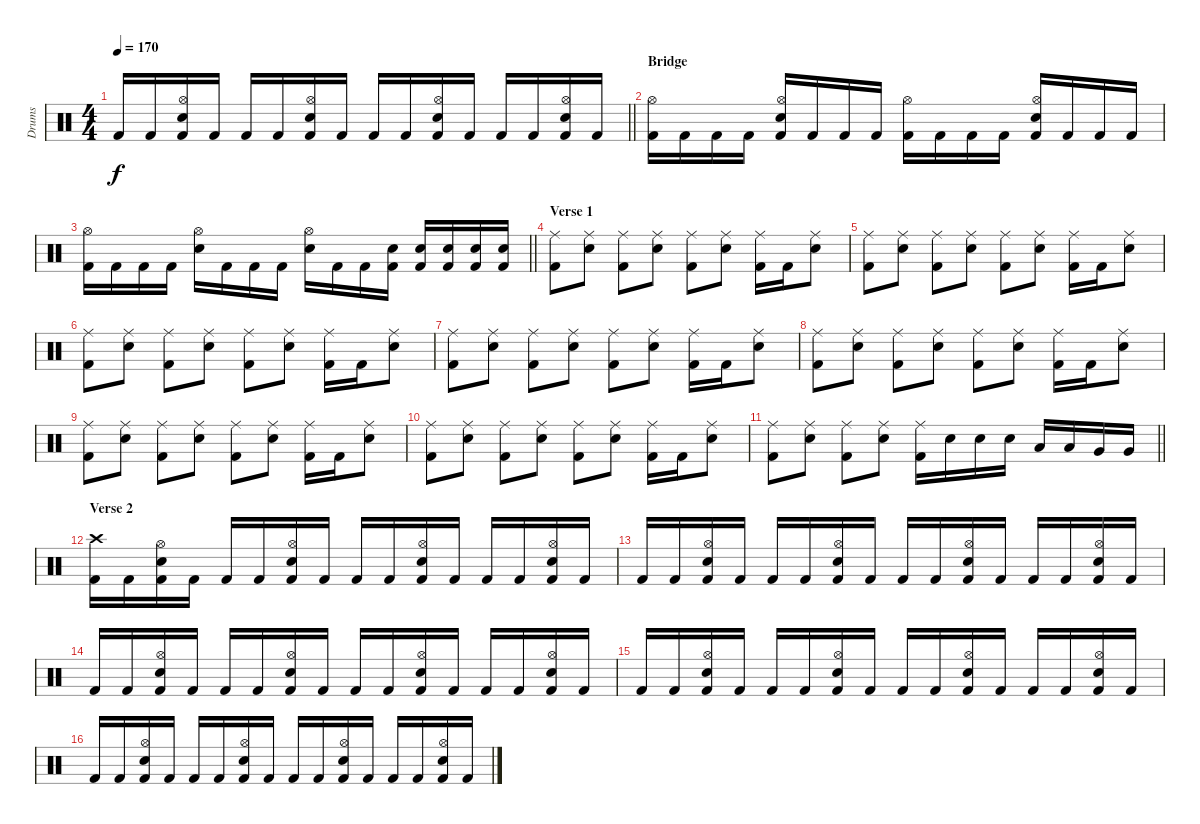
\track ("Drums" "Drums") {instrument percussion}
\staff {score}
\articulation defaults
\ts (4 4)
\tempo 170
\clef neutral
\barLineRight lightlight
\ks c "Kick (hit) 2".16{dy f} "Kick (hit) 2".16
("Hi-Hat (open)" "Electric Snare (hit)" "Kick (hit) 2").16 "Kick (hit) 2".16 "Kick (hit) 2".16 "Kick (hit) 2".16 ("Hi-Hat (open)" "Electric Snare (hit)" "Kick (hit) 2").16 "Kick (hit) 2".16 "Kick (hit) 2".16 "Kick (hit) 2".16 ("Hi-Hat (open)" "Electric Snare (hit)" "Kick (hit) 2").16 "Kick (hit) 2".16 "Kick (hit) 2".16 "Kick (hit) 2".16 ("Hi-Hat (open)" "Electric Snare (hit)" "Kick (hit) 2").16 "Kick (hit) 2".16 |
\section ("" "Bridge")
("Hi-Hat (open)" "Kick (hit) 2").16 "Kick (hit) 2".16 "Kick (hit) 2".16 "Kick (hit) 2".16 ("Hi-Hat (open)" "Electric Snare (hit)" "Kick (hit) 2").16 "Kick (hit) 2".16 "Kick (hit) 2".16 "Kick (hit) 2".16 ("Hi-Hat (open)" "Kick (hit) 2").16 "Kick (hit) 2".16 "Kick (hit) 2".16 "Kick (hit) 2".16 ("Hi-Hat (open)" "Electric Snare (hit)" "Kick (hit) 2").16 "Kick (hit) 2".16 "Kick (hit) 2".16 "Kick (hit) 2".16 |
\barLineRight lightlight
("Hi-Hat (open)" "Kick (hit) 2").16 "Kick (hit) 2".16 "Kick (hit) 2".16 "Kick (hit) 2".16 ("Hi-Hat (open)" "Electric Snare (hit)").16 "Kick (hit) 2".16 "Kick (hit) 2".16 "Kick (hit) 2".16 ("Hi-Hat (open)" "Electric Snare (hit)").16 "Kick (hit) 2".16 "Kick (hit) 2".16 ("Electric Snare (hit)" "Kick (hit) 2").16 ("Electric Snare (hit)" "Kick (hit) 2").16 ("Electric Snare (hit)" "Kick (hit) 2").16 ("Electric Snare (hit)" "Kick (hit) 2").16 ("Electric Snare (hit)" "Kick (hit) 2").16 |
\section ("" "Verse 1")
("Ride (middle)" "Kick (hit) 2").8 ("Ride (middle)" "Electric Snare (hit)").8 ("Ride (middle)" "Kick (hit) 2").8 ("Ride (middle)" "Electric Snare (hit)").8 ("Ride (middle)" "Kick (hit) 2").8 ("Ride (middle)" "Electric Snare (hit)").8 ("Ride (middle)" "Kick (hit) 2").16 "Kick (hit) 2".16 ("Ride (middle)" "Electric Snare (hit)").8 |
("Ride (middle)" "Kick (hit) 2").8 ("Ride (middle)" "Electric Snare (hit)").8 ("Ride (middle)" "Kick (hit) 2").8 ("Ride (middle)" "Electric Snare (hit)").8 ("Ride (middle)" "Kick (hit) 2").8 ("Ride (middle)" "Electric Snare (hit)").8 ("Ride (middle)" "Kick (hit) 2").16 "Kick (hit) 2".16 ("Ride (middle)" "Electric Snare (hit)").8 |
("Ride (middle)" "Kick (hit) 2").8 ("Ride (middle)" "Electric Snare (hit)").8 ("Ride (middle)" "Kick (hit) 2").8 ("Ride (middle)" "Electric Snare (hit)").8 ("Ride (middle)" "Kick (hit) 2").8 ("Ride (middle)" "Electric Snare (hit)").8 ("Ride (middle)" "Kick (hit) 2").16 "Kick (hit) 2".16 ("Ride (middle)" "Electric Snare (hit)").8 |
("Ride (middle)" "Kick (hit) 2").8 ("Ride (middle)" "Electric Snare (hit)").8 ("Ride (middle)" "Kick (hit) 2").8 ("Ride (middle)" "Electric Snare (hit)").8 ("Ride (middle)" "Kick (hit) 2").8 ("Ride (middle)" "Electric Snare (hit)").8 ("Ride (middle)" "Kick (hit) 2").16 "Kick (hit) 2".16 ("Ride (middle)" "Electric Snare (hit)").8 |
("Ride (middle)" "Kick (hit) 2").8 ("Ride (middle)" "Electric Snare (hit)").8 ("Ride (middle)" "Kick (hit) 2").8 ("Ride (middle)" "Electric Snare (hit)").8 ("Ride (middle)" "Kick (hit) 2").8 ("Ride (middle)" "Electric Snare (hit)").8 ("Ride (middle)" "Kick (hit) 2").16 "Kick (hit) 2".16 ("Ride (middle)" "Electric Snare (hit)").8 |
("Ride (middle)" "Kick (hit) 2").8 ("Ride (middle)" "Electric Snare (hit)").8 ("Ride (middle)" "Kick (hit) 2").8 ("Ride (middle)" "Electric Snare (hit)").8 ("Ride (middle)" "Kick (hit) 2").8 ("Ride (middle)" "Electric Snare (hit)").8 ("Ride (middle)" "Kick (hit) 2").16 "Kick (hit) 2".16 ("Ride (middle)" "Electric Snare (hit)").8 |
("Ride (middle)" "Kick (hit) 2").8 ("Ride (middle)" "Electric Snare (hit)").8 ("Ride (middle)" "Kick (hit) 2").8 ("Ride (middle)" "Electric Snare (hit)").8 ("Ride (middle)" "Kick (hit) 2").8 ("Ride (middle)" "Electric Snare (hit)").8 ("Ride (middle)" "Kick (hit) 2").16 "Kick (hit) 2".16 ("Ride (middle)" "Electric Snare (hit)").8 |
\barLineRight lightlight
("Ride (middle)" "Kick (hit) 2").8 ("Ride (middle)" "Electric Snare (hit)").8 ("Ride (middle)" "Kick (hit) 2").8 ("Ride (middle)" "Electric Snare (hit)").8 ("Ride (middle)" "Kick (hit) 2").16 "Electric Snare (hit)".16 "Electric Snare (hit)".16 "Electric Snare (hit)".16 "Low Tom (hit)".16 "Low Tom (hit)".16 "Very Low Tom (hit)".16 "Very Low Tom (hit)".16 |
\section ("" "Verse 2")
("Crash high (hit)" "Kick (hit) 2").16 "Kick (hit) 2".16 ("Hi-Hat (open)" "Electric Snare (hit)" "Kick (hit) 2").16 "Kick (hit) 2".16 "Kick (hit) 2".16 "Kick (hit) 2".16 ("Hi-Hat (open)" "Electric Snare (hit)" "Kick (hit) 2").16 "Kick (hit) 2".16 "Kick (hit) 2".16 "Kick (hit) 2".16 ("Hi-Hat (open)" "Electric Snare (hit)" "Kick (hit) 2").16 "Kick (hit) 2".16 "Kick (hit) 2".16 "Kick (hit) 2".16 ("Hi-Hat (open)" "Electric Snare (hit)" "Kick (hit) 2").16 "Kick (hit) 2".16 |
"Kick (hit) 2".16 "Kick (hit) 2".16 ("Hi-Hat (open)" "Electric Snare (hit)" "Kick (hit) 2").16 "Kick (hit) 2".16 "Kick (hit) 2".16 "Kick (hit) 2".16 ("Hi-Hat (open)" "Electric Snare (hit)" "Kick (hit) 2").16 "Kick (hit) 2".16 "Kick (hit) 2".16 "Kick (hit) 2".16 ("Hi-Hat (open)" "Electric Snare (hit)" "Kick (hit) 2").16 "Kick (hit) 2".16 "Kick (hit) 2".16 "Kick (hit) 2".16 ("Hi-Hat (open)" "Electric Snare (hit)" "Kick (hit) 2").16 "Kick (hit) 2".16 |
"Kick (hit) 2".16 "Kick (hit) 2".16 ("Hi-Hat (open)" "Electric Snare (hit)" "Kick (hit) 2").16 "Kick (hit) 2".16 "Kick (hit) 2".16 "Kick (hit) 2".16 ("Hi-Hat (open)" "Electric Snare (hit)" "Kick (hit) 2").16 "Kick (hit) 2".16 "Kick (hit) 2".16 "Kick (hit) 2".16 ("Hi-Hat (open)" "Electric Snare (hit)" "Kick (hit) 2").16 "Kick (hit) 2".16 "Kick (hit) 2".16 "Kick (hit) 2".16 ("Hi-Hat (open)" "Electric Snare (hit)" "Kick (hit) 2").16 "Kick (hit) 2".16 |
"Kick (hit) 2".16 "Kick (hit) 2".16 ("Hi-Hat (open)" "Electric Snare (hit)" "Kick (hit) 2").16 "Kick (hit) 2".16 "Kick (hit) 2".16 "Kick (hit) 2".16 ("Hi-Hat (open)" "Electric Snare (hit)" "Kick (hit) 2").16 "Kick (hit) 2".16 "Kick (hit) 2".16 "Kick (hit) 2".16 ("Hi-Hat (open)" "Electric Snare (hit)" "Kick (hit) 2").16 "Kick (hit) 2".16 "Kick (hit) 2".16 "Kick (hit) 2".16 ("Hi-Hat (open)" "Electric Snare (hit)" "Kick (hit) 2").16 "Kick (hit) 2".16 |
"Kick (hit) 2".16 "Kick (hit) 2".16 ("Hi-Hat (open)" "Electric Snare (hit)" "Kick (hit) 2").16 "Kick (hit) 2".16 "Kick (hit) 2".16 "Kick (hit) 2".16 ("Hi-Hat (open)" "Electric Snare (hit)" "Kick (hit) 2").16 "Kick (hit) 2".16 "Kick (hit) 2".16 "Kick (hit) 2".16 ("Hi-Hat (open)" "Electric Snare (hit)" "Kick (hit) 2").16 "Kick (hit) 2".16 "Kick (hit) 2".16 "Kick (hit) 2".16 ("Hi-Hat (open)" "Electric Snare (hit)" "Kick (hit) 2").16 "Kick (hit) 2".16
